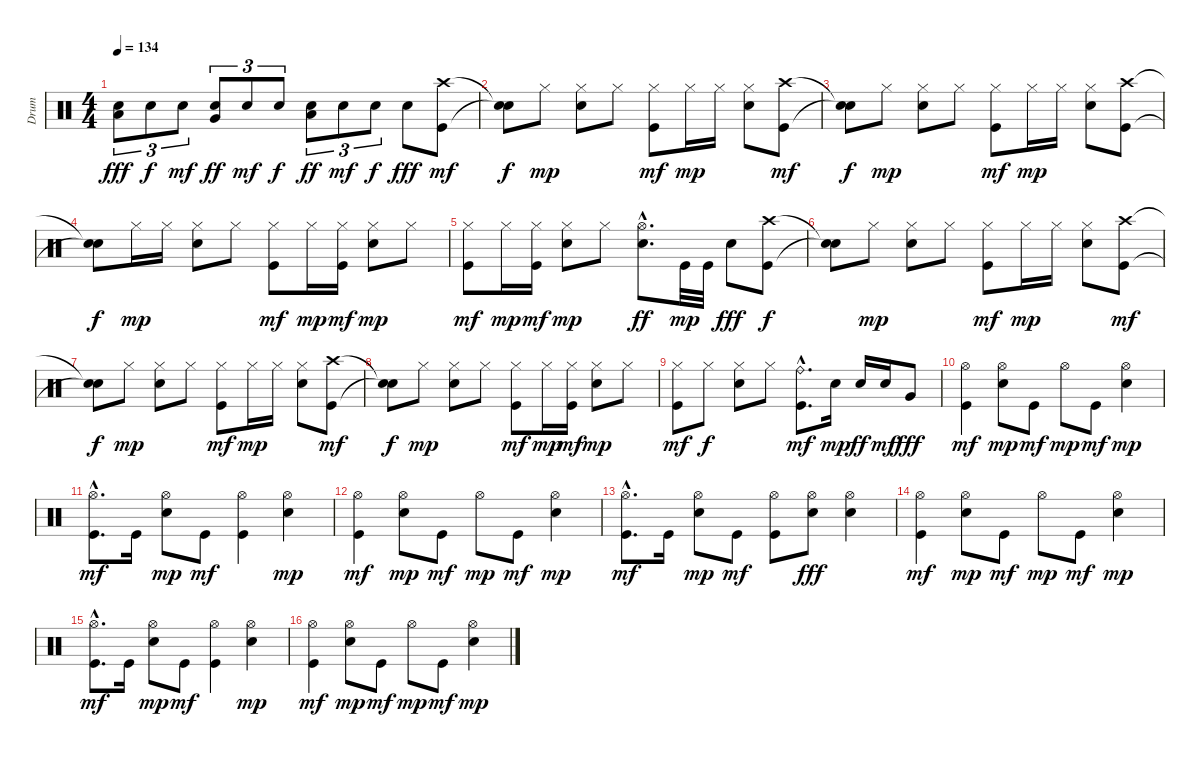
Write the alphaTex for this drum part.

\track ("Drum" "Drum") {instrument percussion}
\staff {score}
\articulation defaults
\ts (4 4)
\tempo 134
\clef neutral
\ks c
("Low Tom (hit)" "Electric Snare (hit)").8{tu (3 2) dy fff} "Electric Snare (hit)".8{tu (3 2) dy f} "Electric Snare (hit)".8{tu (3 2) dy mf} ("Very Low Tom (hit)" "Electric Snare (hit)").8{tu (3 2) dy ff} "Electric Snare (hit)".8{tu (3 2) dy mf} "Electric Snare (hit)".8{tu (3 2) dy f} ("Low Floor Tom (hit)" "Electric Snare (hit)").8{tu (3 2) dy ff} "Electric Snare (hit)".8{tu (3 2) dy mf} "Electric Snare (hit)".8{tu (3 2) dy f} "Electric Snare (hit)".8{dy fff} ("Crash high (hit)" "Kick (hit)").8{dy mf} |
("Snare (hit)"{t} "Snare (hit)"{t}).8{dy f} "Hi-Hat (closed)".8{dy mp} ("Hi-Hat (closed)" "Electric Snare (hit)").8 "Hi-Hat (closed)".8 ("Hi-Hat (closed)" "Kick (hit)").8{dy mf} "Hi-Hat (closed)".16{dy mp} "Hi-Hat (closed)".16 ("Hi-Hat (closed)" "Electric Snare (hit)").8 ("Crash high (hit)" "Kick (hit)").8{dy mf} |
("Snare (hit)"{t} "Snare (hit)"{t}).8{dy f} "Hi-Hat (closed)".8{dy mp} ("Hi-Hat (closed)" "Electric Snare (hit)").8 "Hi-Hat (closed)".8 ("Hi-Hat (closed)" "Kick (hit)").8{dy mf} "Hi-Hat (closed)".16{dy mp} "Hi-Hat (closed)".16 ("Hi-Hat (closed)" "Electric Snare (hit)").8 ("Crash high (hit)" "Kick (hit)").8 |
("Snare (hit)"{t} "Snare (hit)"{t}).8{dy f} "Hi-Hat (closed)".16{dy mp} "Hi-Hat (closed)".16 ("Hi-Hat (closed)" "Electric Snare (hit)").8 "Hi-Hat (closed)".8 ("Hi-Hat (closed)" "Kick (hit)").8{dy mf} "Hi-Hat (closed)".16{dy mp} ("Hi-Hat (closed)" "Kick (hit)").16{dy mf} ("Hi-Hat (closed)" "Electric Snare (hit)").8{dy mp} "Hi-Hat (closed)".8 |
("Hi-Hat (closed)" "Kick (hit)").8{dy mf} "Hi-Hat (closed)".16{dy mp} ("Hi-Hat (closed)" "Kick (hit)").16{dy mf} ("Hi-Hat (closed)" "Electric Snare (hit)").8{dy mp} "Hi-Hat (closed)".8 ("Hi-Hat (open)"{hac} "Electric Snare (hit)"{hac}).8{d dy ff} "Kick (hit)".32{dy mp} "Kick (hit)".32 "Electric Snare (hit)".8{dy fff} ("Crash high (hit)" "Kick (hit)").8{dy f} |
("Snare (hit)"{t} "Snare (hit)"{t}).8 "Hi-Hat (closed)".8{dy mp} ("Hi-Hat (closed)" "Electric Snare (hit)").8 "Hi-Hat (closed)".8 ("Hi-Hat (closed)" "Kick (hit)").8{dy mf} "Hi-Hat (closed)".16{dy mp} "Hi-Hat (closed)".16 ("Hi-Hat (closed)" "Electric Snare (hit)").8 ("Crash high (hit)" "Kick (hit)").8{dy mf} |
("Snare (hit)"{t} "Snare (hit)"{t}).8{dy f} "Hi-Hat (closed)".8{dy mp} ("Hi-Hat (closed)" "Electric Snare (hit)").8 "Hi-Hat (closed)".8 ("Hi-Hat (closed)" "Kick (hit)").8{dy mf} "Hi-Hat (closed)".16{dy mp} "Hi-Hat (closed)".16 ("Hi-Hat (closed)" "Electric Snare (hit)").8 ("Crash high (hit)" "Kick (hit)").8{dy mf} |
("Snare (hit)"{t} "Snare (hit)"{t}).8{dy f} "Hi-Hat (closed)".8{dy mp} ("Hi-Hat (closed)" "Electric Snare (hit)").8 "Hi-Hat (closed)".8 ("Hi-Hat (closed)" "Kick (hit)").8{dy mf} "Hi-Hat (closed)".16{dy mp} ("Hi-Hat (closed)" "Kick (hit)").16{dy mf} ("Hi-Hat (closed)" "Electric Snare (hit)").8{dy mp} "Hi-Hat (closed)".8 |
("Hi-Hat (closed)" "Kick (hit)").8{dy mf} "Hi-Hat (closed)".8{dy f} ("Hi-Hat (closed)" "Electric Snare (hit)").8 "Hi-Hat (closed)".8 ("Ride (bell)"{hac} "Kick (hit)"{hac}).8{d dy mf} "Electric Snare (hit)".16{dy mp} "Electric Snare (hit)".16{dy ff} "Electric Snare (hit)".16{dy mf} "Very Low Tom (hit)".8{dy fff} |
("Hi-Hat (open)" "Kick (hit)").4{dy mf} ("Hi-Hat (open)" "Electric Snare (hit)").8{dy mp} "Kick (hit)".8{dy mf} "Hi-Hat (open)".8{dy mp} "Kick (hit)".8{dy mf} ("Hi-Hat (open)" "Electric Snare (hit)").4{dy mp} |
("Hi-Hat (open)"{hac} "Kick (hit)"{hac}).8{d dy mf} "Kick (hit)".16 ("Hi-Hat (open)" "Electric Snare (hit)").8{dy mp} "Kick (hit)".8{dy mf} ("Hi-Hat (open)" "Kick (hit)").4 ("Hi-Hat (open)" "Electric Snare (hit)").4{dy mp} |
("Hi-Hat (open)" "Kick (hit)").4{dy mf} ("Hi-Hat (open)" "Electric Snare (hit)").8{dy mp} "Kick (hit)".8{dy mf} "Hi-Hat (open)".8{dy mp} "Kick (hit)".8{dy mf} ("Hi-Hat (open)" "Electric Snare (hit)").4{dy mp} |
("Hi-Hat (open)"{hac} "Kick (hit)"{hac}).8{d dy mf} "Kick (hit)".16 ("Hi-Hat (open)" "Electric Snare (hit)").8{dy mp} "Kick (hit)".8{dy mf} ("Hi-Hat (open)" "Kick (hit)").8 ("Hi-Hat (open)" "Electric Snare (hit)").8{dy fff} ("Hi-Hat (open)" "Electric Snare (hit)").4 |
("Hi-Hat (open)" "Kick (hit)").4{dy mf} ("Hi-Hat (open)" "Electric Snare (hit)").8{dy mp} "Kick (hit)".8{dy mf} "Hi-Hat (open)".8{dy mp} "Kick (hit)".8{dy mf} ("Hi-Hat (open)" "Electric Snare (hit)").4{dy mp} |
("Hi-Hat (open)"{hac} "Kick (hit)"{hac}).8{d dy mf} "Kick (hit)".16 ("Hi-Hat (open)" "Electric Snare (hit)").8{dy mp} "Kick (hit)".8{dy mf} ("Hi-Hat (open)" "Kick (hit)").4 ("Hi-Hat (open)" "Electric Snare (hit)").4{dy mp} |
("Hi-Hat (open)" "Kick (hit)").4{dy mf} ("Hi-Hat (open)" "Electric Snare (hit)").8{dy mp} "Kick (hit)".8{dy mf} "Hi-Hat (open)".8{dy mp} "Kick (hit)".8{dy mf} ("Hi-Hat (open)" "Electric Snare (hit)").4{dy mp}
